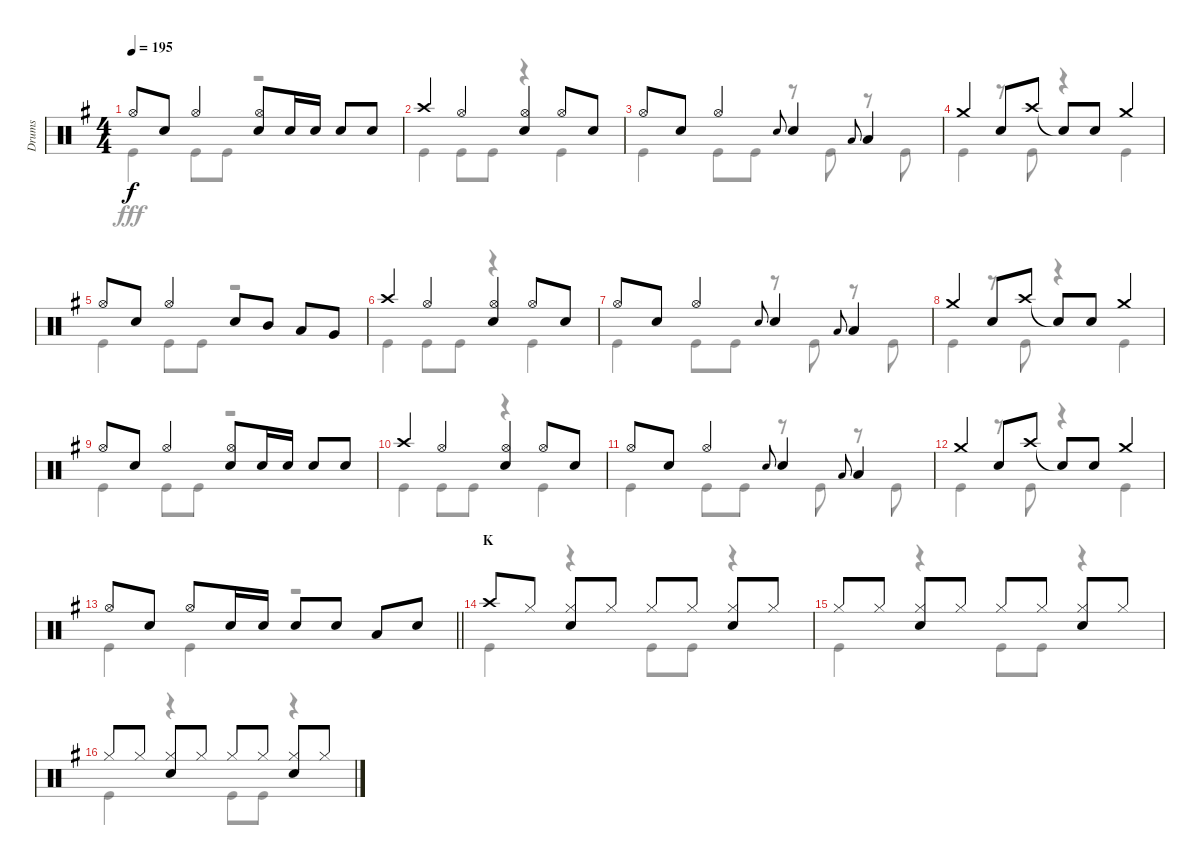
\track ("Drums" "Drums") {instrument percussion}
\staff {score}
\articulation defaults
\voice
\ts (4 4)
\tempo 195
\clef neutral
\ks g "Hi-Hat (open)".8{dy f} "Snare (hit) 2".8 "Hi-Hat (open)".4
("Hi-Hat (open)" "Snare (hit) 2").8 "Snare (hit) 2".16 "Snare (hit) 2".16 "Snare (hit) 2".8 "Snare (hit) 2".8 |
"Crash high (hit)".4 "Hi-Hat (open)".4 ("Hi-Hat (open)" "Snare (hit) 2").4 "Hi-Hat (open)".8 "Snare (hit) 2".8 |
"Hi-Hat (open)".8 "Snare (hit) 2".8 "Hi-Hat (open)".4 "Snare (hit) 2".8{gr onbeat} "Snare (hit) 2".4 "Low Tom (hit)".8{gr onbeat} "Low Tom (hit)".4 |
"Crash medium (hit)".4 "Snare (hit) 2".8 "Crash high (hit)".8 "Snare (hit)"{t}.8 "Snare (hit) 2".8 "Crash medium (hit)".4 |
"Hi-Hat (open)".8 "Snare (hit) 2".8 "Hi-Hat (open)".4 "Snare (hit) 2".8 "Mid Tom (hit)".8 "Low Tom (hit)".8 "Very Low Tom (hit)".8 |
"Crash high (hit)".4 "Hi-Hat (open)".4 ("Hi-Hat (open)" "Snare (hit) 2").4 "Hi-Hat (open)".8 "Snare (hit) 2".8 |
"Hi-Hat (open)".8 "Snare (hit) 2".8 "Hi-Hat (open)".4 "Snare (hit) 2".8{gr onbeat} "Snare (hit) 2".4 "Low Tom (hit)".8{gr onbeat} "Low Tom (hit)".4 |
"Crash medium (hit)".4 "Snare (hit) 2".8 "Crash high (hit)".8 "Snare (hit)"{t}.8 "Snare (hit) 2".8 "Crash medium (hit)".4 |
"Hi-Hat (open)".8 "Snare (hit) 2".8 "Hi-Hat (open)".4 ("Hi-Hat (open)" "Snare (hit) 2").8 "Snare (hit) 2".16 "Snare (hit) 2".16 "Snare (hit) 2".8 "Snare (hit) 2".8 |
"Crash high (hit)".4 "Hi-Hat (open)".4 ("Hi-Hat (open)" "Snare (hit) 2").4 "Hi-Hat (open)".8 "Snare (hit) 2".8 |
"Hi-Hat (open)".8 "Snare (hit) 2".8 "Hi-Hat (open)".4 "Snare (hit) 2".8{gr onbeat} "Snare (hit) 2".4 "Low Tom (hit)".8{gr onbeat} "Low Tom (hit)".4 |
"Crash medium (hit)".4 "Snare (hit) 2".8 "Crash high (hit)".8 "Snare (hit)"{t}.8 "Snare (hit) 2".8 "Crash medium (hit)".4 |
\barLineRight lightlight "Hi-Hat (open)".8 "Snare (hit) 2".8 "Hi-Hat (open)".8 "Snare (hit) 2".16 "Snare (hit) 2".16 "Snare (hit) 2".8 "Snare (hit) 2".8 "Low Tom (hit)".8 "Snare (hit) 2".8
|
\section ("" "K")
"Crash high (hit)".8 "Hi-Hat (closed)".8 ("Hi-Hat (closed)" "Snare (hit) 2").8 "Hi-Hat (closed)".8 "Hi-Hat (closed)".8 "Hi-Hat (closed)".8 ("Hi-Hat (closed)" "Snare (hit) 2").8 "Hi-Hat (closed)".8 |
"Hi-Hat (closed)".8 "Hi-Hat (closed)".8 ("Hi-Hat (closed)" "Snare (hit) 2").8 "Hi-Hat (closed)".8 "Hi-Hat (closed)".8 "Hi-Hat (closed)".8 ("Hi-Hat (closed)" "Snare (hit) 2").8 "Hi-Hat (closed)".8 |
"Hi-Hat (closed)".8 "Hi-Hat (closed)".8 ("Hi-Hat (closed)" "Snare (hit) 2").8 "Hi-Hat (closed)".8 "Hi-Hat (closed)".8 "Hi-Hat (closed)".8 ("Hi-Hat (closed)" "Snare (hit) 2").8 "Hi-Hat (closed)".8
\voice
\clef neutral
\ottava regular
\simile none
\ks g "Kick (hit)".4{dy fff} "Kick (hit)".8 "Kick (hit)".8
r.2 |
"Kick (hit)".4 "Kick (hit)".8 "Kick (hit)".8 r.4 "Kick (hit)".4 |
"Kick (hit)".4 "Kick (hit)".8 "Kick (hit)".8 r.8 "Kick (hit)".8 r.8 "Kick (hit)".8 |
"Kick (hit)".4 r.8 "Kick (hit)".8 r.4 "Kick (hit)".4 |
"Kick (hit)".4 "Kick (hit)".8 "Kick (hit)".8 r.2 |
"Kick (hit)".4 "Kick (hit)".8 "Kick (hit)".8 r.4 "Kick (hit)".4 |
"Kick (hit)".4 "Kick (hit)".8 "Kick (hit)".8 r.8 "Kick (hit)".8 r.8 "Kick (hit)".8 |
"Kick (hit)".4 r.8 "Kick (hit)".8 r.4 "Kick (hit)".4 |
"Kick (hit)".4 "Kick (hit)".8 "Kick (hit)".8 r.2 |
"Kick (hit)".4 "Kick (hit)".8 "Kick (hit)".8 r.4 "Kick (hit)".4 |
"Kick (hit)".4 "Kick (hit)".8 "Kick (hit)".8 r.8 "Kick (hit)".8 r.8 "Kick (hit)".8 |
"Kick (hit)".4 r.8 "Kick (hit)".8 r.4 "Kick (hit)".4 |
\barLineRight lightlight "Kick (hit)".4 "Kick (hit)".4
r.2 |
"Kick (hit)".4 r.4 "Kick (hit)".8 "Kick (hit)".8 r.4 |
"Kick (hit)".4 r.4 "Kick (hit)".8 "Kick (hit)".8 r.4 |
"Kick (hit)".4 r.4 "Kick (hit)".8 "Kick (hit)".8 r.4
